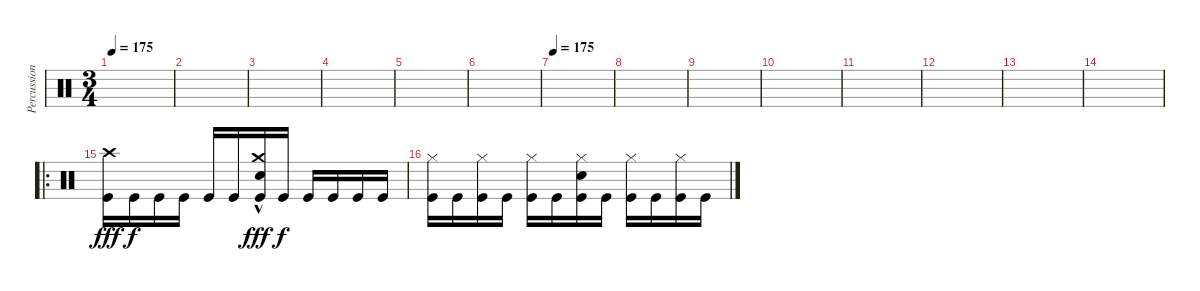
\track ("Percussion" "Percussion") {instrument percussion}
\staff {score}
\articulation defaults
\ts (3 4)
\tempo 175
\clef neutral
\ks c
|
|
|
|
|
|
\tempo 175
|
|
|
|
|
|
|
|
\ro
("Crash high (hit)" "Kick (hit)").16{dy fff} "Kick (hit)".16{dy f} "Kick (hit)".16 "Kick (hit)".16 "Kick (hit)".16 "Kick (hit)".16 ("Crash medium (hit)"{hac} "Snare (hit) 2" "Kick (hit)").16{dy fff} "Kick (hit)".16{dy f} "Kick (hit)".16 "Kick (hit)".16 "Kick (hit)".16 "Kick (hit)".16 |
("Hi-Hat (closed)" "Kick (hit)").16 "Kick (hit)".16 ("Hi-Hat (closed)" "Kick (hit)").16 "Kick (hit)".16 ("Hi-Hat (closed)" "Kick (hit)").16 "Kick (hit)".16 ("Hi-Hat (closed)" "Snare (hit) 2" "Kick (hit)").16 "Kick (hit)".16 ("Hi-Hat (closed)" "Kick (hit)").16 "Kick (hit)".16 ("Hi-Hat (closed)" "Kick (hit)").16 "Kick (hit)".16
